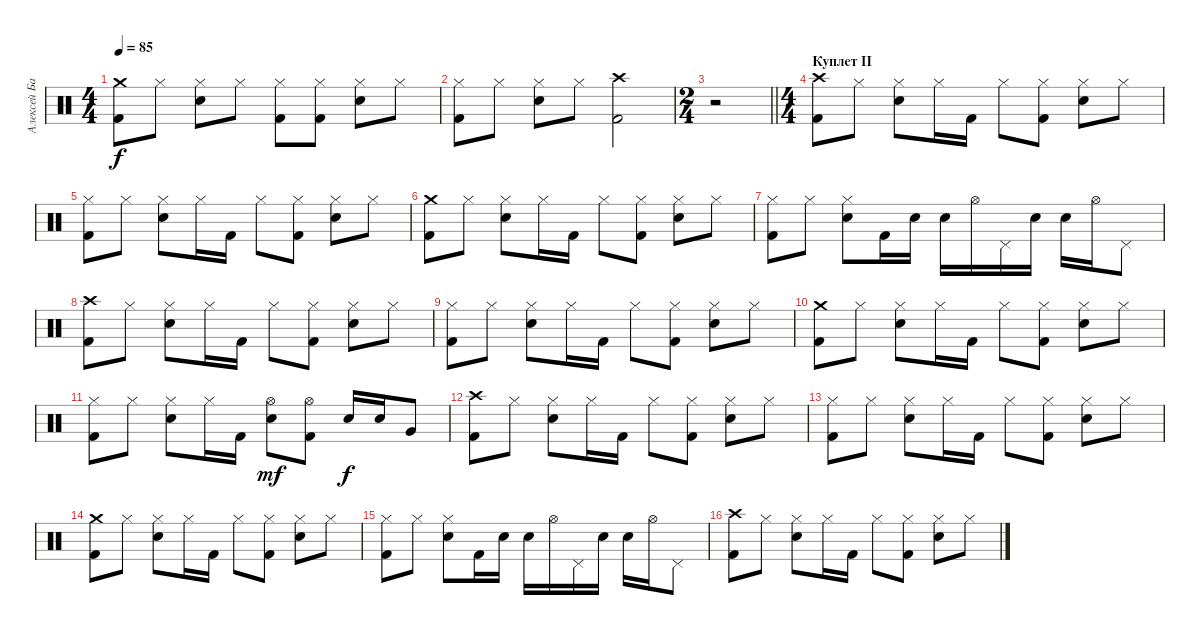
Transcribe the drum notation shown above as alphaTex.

\track ("Алексей Барзилович" "Алексей Ба") {instrument percussion}
\staff {score}
\articulation defaults
\ts (4 4)
\tempo 85
\clef neutral
\ks c
("Crash medium (hit)" "Kick (hit) 2").8{dy f} "Hi-Hat (closed)".8 ("Hi-Hat (closed)" "Electric Snare (hit)").8 "Hi-Hat (closed)".8 ("Hi-Hat (closed)" "Kick (hit) 2").8 ("Hi-Hat (closed)" "Kick (hit) 2").8 ("Hi-Hat (closed)" "Electric Snare (hit)").8 "Hi-Hat (closed)".8 |
("Hi-Hat (closed)" "Kick (hit) 2").8 "Hi-Hat (closed)".8 ("Hi-Hat (closed)" "Electric Snare (hit)").8 "Hi-Hat (closed)".8 ("Crash high (hit)" "Kick (hit) 2").2 |
\ts (2 4)
\barLineRight lightlight
r.2 |
\ts (4 4)
\section ("" "Куплет II")
("Crash high (hit)" "Kick (hit) 2").8 "Hi-Hat (closed)".8 ("Hi-Hat (closed)" "Electric Snare (hit)").8 "Hi-Hat (closed)".16 "Kick (hit) 2".16 "Hi-Hat (closed)".8 ("Hi-Hat (closed)" "Kick (hit) 2").8 ("Hi-Hat (closed)" "Electric Snare (hit)").8 "Hi-Hat (closed)".8 |
("Hi-Hat (closed)" "Kick (hit) 2").8 "Hi-Hat (closed)".8 ("Hi-Hat (closed)" "Electric Snare (hit)").8 "Hi-Hat (closed)".16 "Kick (hit) 2".16 "Hi-Hat (closed)".8 ("Hi-Hat (closed)" "Kick (hit) 2").8 ("Hi-Hat (closed)" "Electric Snare (hit)").8 "Hi-Hat (closed)".8 |
("Crash medium (hit)" "Kick (hit) 2").8 "Hi-Hat (closed)".8 ("Hi-Hat (closed)" "Electric Snare (hit)").8 "Hi-Hat (closed)".16 "Kick (hit) 2".16 "Hi-Hat (closed)".8 ("Hi-Hat (closed)" "Kick (hit) 2").8 ("Hi-Hat (closed)" "Electric Snare (hit)").8 "Hi-Hat (closed)".8 |
("Hi-Hat (closed)" "Kick (hit) 2").8 "Hi-Hat (closed)".8 ("Hi-Hat (closed)" "Electric Snare (hit)").8 "Kick (hit) 2".16 "Electric Snare (hit)".16 "Electric Snare (hit)".16 "Hi-Hat (open)".16 "Pedal Hi-Hat (hit)".16 "Electric Snare (hit)".16 "Electric Snare (hit)".16 "Hi-Hat (open)".16 "Pedal Hi-Hat (hit)".8 |
("Crash high (hit)" "Kick (hit) 2").8 "Hi-Hat (closed)".8 ("Hi-Hat (closed)" "Electric Snare (hit)").8 "Hi-Hat (closed)".16 "Kick (hit) 2".16 "Hi-Hat (closed)".8 ("Hi-Hat (closed)" "Kick (hit) 2").8 ("Hi-Hat (closed)" "Electric Snare (hit)").8 "Hi-Hat (closed)".8 |
("Hi-Hat (closed)" "Kick (hit) 2").8 "Hi-Hat (closed)".8 ("Hi-Hat (closed)" "Electric Snare (hit)").8 "Hi-Hat (closed)".16 "Kick (hit) 2".16 "Hi-Hat (closed)".8 ("Hi-Hat (closed)" "Kick (hit) 2").8 ("Hi-Hat (closed)" "Electric Snare (hit)").8 "Hi-Hat (closed)".8 |
("Crash medium (hit)" "Kick (hit) 2").8 "Hi-Hat (closed)".8 ("Hi-Hat (closed)" "Electric Snare (hit)").8 "Hi-Hat (closed)".16 "Kick (hit) 2".16 "Hi-Hat (closed)".8 ("Hi-Hat (closed)" "Kick (hit) 2").8 ("Hi-Hat (closed)" "Electric Snare (hit)").8 "Hi-Hat (closed)".8 |
("Hi-Hat (closed)" "Kick (hit) 2").8 "Hi-Hat (closed)".8 ("Hi-Hat (closed)" "Electric Snare (hit)").8 "Hi-Hat (closed)".16 "Kick (hit) 2".16 ("Hi-Hat (open)" "Electric Snare (hit)").8{dy mf} ("Hi-Hat (open)" "Kick (hit) 2").8 "Electric Snare (hit)".16{dy f} "Electric Snare (hit)".16 "Very Low Tom (hit)".8 |
("Crash high (hit)" "Kick (hit) 2").8 "Hi-Hat (closed)".8 ("Hi-Hat (closed)" "Electric Snare (hit)").8 "Hi-Hat (closed)".16 "Kick (hit) 2".16 "Hi-Hat (closed)".8 ("Hi-Hat (closed)" "Kick (hit) 2").8 ("Hi-Hat (closed)" "Electric Snare (hit)").8 "Hi-Hat (closed)".8 |
("Hi-Hat (closed)" "Kick (hit) 2").8 "Hi-Hat (closed)".8 ("Hi-Hat (closed)" "Electric Snare (hit)").8 "Hi-Hat (closed)".16 "Kick (hit) 2".16 "Hi-Hat (closed)".8 ("Hi-Hat (closed)" "Kick (hit) 2").8 ("Hi-Hat (closed)" "Electric Snare (hit)").8 "Hi-Hat (closed)".8 |
("Crash medium (hit)" "Kick (hit) 2").8 "Hi-Hat (closed)".8 ("Hi-Hat (closed)" "Electric Snare (hit)").8 "Hi-Hat (closed)".16 "Kick (hit) 2".16 "Hi-Hat (closed)".8 ("Hi-Hat (closed)" "Kick (hit) 2").8 ("Hi-Hat (closed)" "Electric Snare (hit)").8 "Hi-Hat (closed)".8 |
("Hi-Hat (closed)" "Kick (hit) 2").8 "Hi-Hat (closed)".8 ("Hi-Hat (closed)" "Electric Snare (hit)").8 "Kick (hit) 2".16 "Electric Snare (hit)".16 "Electric Snare (hit)".16 "Hi-Hat (open)".16 "Pedal Hi-Hat (hit)".16 "Electric Snare (hit)".16 "Electric Snare (hit)".16 "Hi-Hat (open)".16 "Pedal Hi-Hat (hit)".8 |
("Crash high (hit)" "Kick (hit) 2").8 "Hi-Hat (closed)".8 ("Hi-Hat (closed)" "Electric Snare (hit)").8 "Hi-Hat (closed)".16 "Kick (hit) 2".16 "Hi-Hat (closed)".8 ("Hi-Hat (closed)" "Kick (hit) 2").8 ("Hi-Hat (closed)" "Electric Snare (hit)").8 "Hi-Hat (closed)".8
